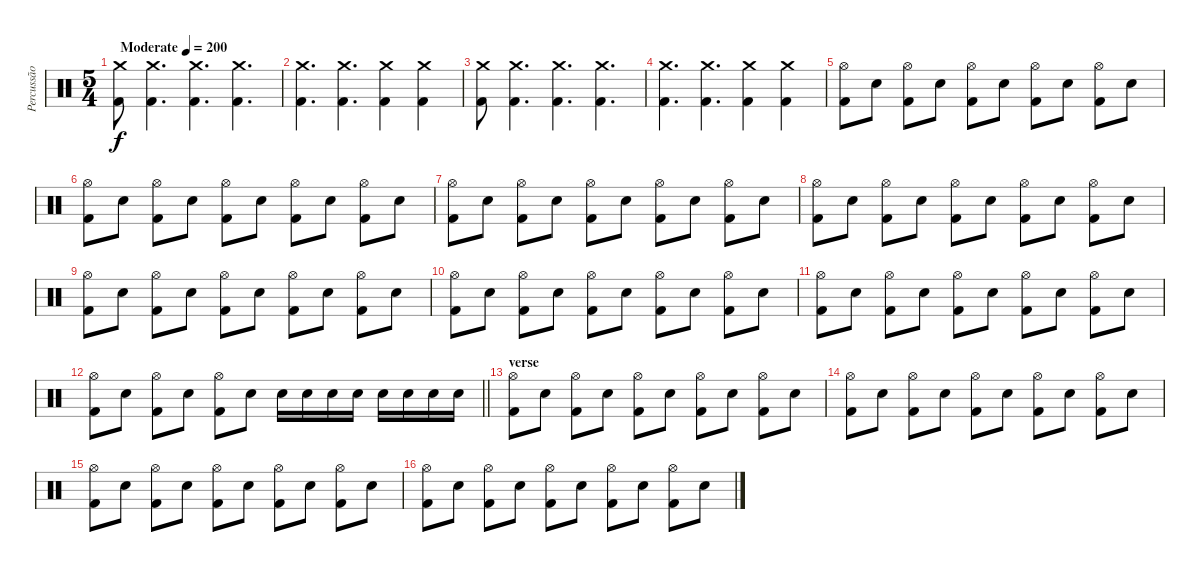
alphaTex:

\track ("Percussão" "Percussão") {instrument percussion}
\staff {score}
\articulation defaults
\ts (5 4)
\tempo (200 "Moderate")
\clef neutral
\ks c
("Crash medium (hit)" "Kick (hit) 2").8{dy f} ("Crash medium (hit)" "Kick (hit) 2").4{d} ("Crash medium (hit)" "Kick (hit) 2").4{d} ("Crash medium (hit)" "Kick (hit) 2").4{d} |
("Crash medium (hit)" "Kick (hit) 2").4{d} ("Crash medium (hit)" "Kick (hit) 2").4{d} ("Crash medium (hit)" "Kick (hit) 2").4 ("Crash medium (hit)" "Kick (hit) 2").4 |
("Crash medium (hit)" "Kick (hit) 2").8 ("Crash medium (hit)" "Kick (hit) 2").4{d} ("Crash medium (hit)" "Kick (hit) 2").4{d} ("Crash medium (hit)" "Kick (hit) 2").4{d} |
("Crash medium (hit)" "Kick (hit) 2").4{d} ("Crash medium (hit)" "Kick (hit) 2").4{d} ("Crash medium (hit)" "Kick (hit) 2").4 ("Crash medium (hit)" "Kick (hit) 2").4 |
("Kick (hit) 2" "Hi-Hat (open)").8 "Snare (hit) 2".8 ("Kick (hit) 2" "Hi-Hat (open)").8 "Snare (hit) 2".8 ("Kick (hit) 2" "Hi-Hat (open)").8 "Snare (hit) 2".8 ("Kick (hit) 2" "Hi-Hat (open)").8 "Snare (hit) 2".8 ("Kick (hit) 2" "Hi-Hat (open)").8 "Snare (hit) 2".8 |
("Kick (hit) 2" "Hi-Hat (open)").8 "Snare (hit) 2".8 ("Kick (hit) 2" "Hi-Hat (open)").8 "Snare (hit) 2".8 ("Kick (hit) 2" "Hi-Hat (open)").8 "Snare (hit) 2".8 ("Kick (hit) 2" "Hi-Hat (open)").8 "Snare (hit) 2".8 ("Kick (hit) 2" "Hi-Hat (open)").8 "Snare (hit) 2".8 |
("Kick (hit) 2" "Hi-Hat (open)").8 "Snare (hit) 2".8 ("Kick (hit) 2" "Hi-Hat (open)").8 "Snare (hit) 2".8 ("Kick (hit) 2" "Hi-Hat (open)").8 "Snare (hit) 2".8 ("Kick (hit) 2" "Hi-Hat (open)").8 "Snare (hit) 2".8 ("Kick (hit) 2" "Hi-Hat (open)").8 "Snare (hit) 2".8 |
("Kick (hit) 2" "Hi-Hat (open)").8 "Snare (hit) 2".8 ("Kick (hit) 2" "Hi-Hat (open)").8 "Snare (hit) 2".8 ("Kick (hit) 2" "Hi-Hat (open)").8 "Snare (hit) 2".8 ("Kick (hit) 2" "Hi-Hat (open)").8 "Snare (hit) 2".8 ("Kick (hit) 2" "Hi-Hat (open)").8 "Snare (hit) 2".8 |
("Kick (hit) 2" "Hi-Hat (open)").8 "Snare (hit) 2".8 ("Kick (hit) 2" "Hi-Hat (open)").8 "Snare (hit) 2".8 ("Kick (hit) 2" "Hi-Hat (open)").8 "Snare (hit) 2".8 ("Kick (hit) 2" "Hi-Hat (open)").8 "Snare (hit) 2".8 ("Kick (hit) 2" "Hi-Hat (open)").8 "Snare (hit) 2".8 |
("Kick (hit) 2" "Hi-Hat (open)").8 "Snare (hit) 2".8 ("Kick (hit) 2" "Hi-Hat (open)").8 "Snare (hit) 2".8 ("Kick (hit) 2" "Hi-Hat (open)").8 "Snare (hit) 2".8 ("Kick (hit) 2" "Hi-Hat (open)").8 "Snare (hit) 2".8 ("Kick (hit) 2" "Hi-Hat (open)").8 "Snare (hit) 2".8 |
("Kick (hit) 2" "Hi-Hat (open)").8 "Snare (hit) 2".8 ("Kick (hit) 2" "Hi-Hat (open)").8 "Snare (hit) 2".8 ("Kick (hit) 2" "Hi-Hat (open)").8 "Snare (hit) 2".8 ("Kick (hit) 2" "Hi-Hat (open)").8 "Snare (hit) 2".8 ("Kick (hit) 2" "Hi-Hat (open)").8 "Snare (hit) 2".8 |
\barLineRight lightlight
("Kick (hit) 2" "Hi-Hat (open)").8 "Snare (hit) 2".8 ("Kick (hit) 2" "Hi-Hat (open)").8 "Snare (hit) 2".8 ("Kick (hit) 2" "Hi-Hat (open)").8 "Snare (hit) 2".8 "Snare (hit) 2".16 "Snare (hit) 2".16 "Snare (hit) 2".16 "Snare (hit) 2".16 "Snare (hit) 2".16 "Snare (hit) 2".16 "Snare (hit) 2".16 "Snare (hit) 2".16 |
\section ("" "verse")
("Kick (hit) 2" "Hi-Hat (open)").8 "Snare (hit) 2".8 ("Kick (hit) 2" "Hi-Hat (open)").8 "Snare (hit) 2".8 ("Kick (hit) 2" "Hi-Hat (open)").8 "Snare (hit) 2".8 ("Kick (hit) 2" "Hi-Hat (open)").8 "Snare (hit) 2".8 ("Kick (hit) 2" "Hi-Hat (open)").8 "Snare (hit) 2".8 |
("Kick (hit) 2" "Hi-Hat (open)").8 "Snare (hit) 2".8 ("Kick (hit) 2" "Hi-Hat (open)").8 "Snare (hit) 2".8 ("Kick (hit) 2" "Hi-Hat (open)").8 "Snare (hit) 2".8 ("Kick (hit) 2" "Hi-Hat (open)").8 "Snare (hit) 2".8 ("Kick (hit) 2" "Hi-Hat (open)").8 "Snare (hit) 2".8 |
("Kick (hit) 2" "Hi-Hat (open)").8 "Snare (hit) 2".8 ("Kick (hit) 2" "Hi-Hat (open)").8 "Snare (hit) 2".8 ("Kick (hit) 2" "Hi-Hat (open)").8 "Snare (hit) 2".8 ("Kick (hit) 2" "Hi-Hat (open)").8 "Snare (hit) 2".8 ("Kick (hit) 2" "Hi-Hat (open)").8 "Snare (hit) 2".8 |
("Kick (hit) 2" "Hi-Hat (open)").8 "Snare (hit) 2".8 ("Kick (hit) 2" "Hi-Hat (open)").8 "Snare (hit) 2".8 ("Kick (hit) 2" "Hi-Hat (open)").8 "Snare (hit) 2".8 ("Kick (hit) 2" "Hi-Hat (open)").8 "Snare (hit) 2".8 ("Kick (hit) 2" "Hi-Hat (open)").8 "Snare (hit) 2".8
